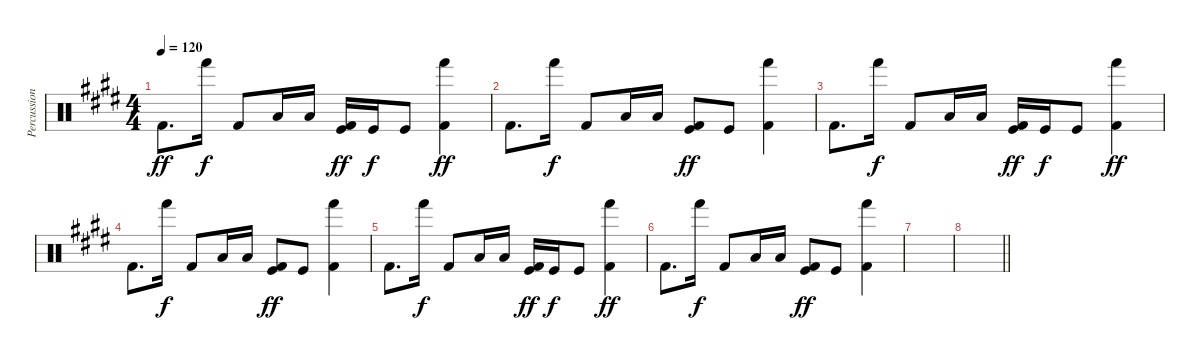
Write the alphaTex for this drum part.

\track ("Percussion" "Percussion") {instrument percussion}
\staff {score}
\articulation defaults
\ts (4 4)
\tempo 120
\clef neutral
\ks e "Kick (hit) 2".8{d dy ff} "Hand (hit)".16{dy f} "Kick (hit) 2".8 "Low Floor Tom (hit)".16 "Low Floor Tom (hit)".16
("Kick (hit)" "Kick (hit) 2").16{dy ff} "Kick (hit)".16{dy f} "Kick (hit)".8 ("Hand (hit)" "Kick (hit) 2").4{dy ff} |
"Kick (hit) 2".8{d} "Hand (hit)".16{dy f} "Kick (hit) 2".8 "Low Floor Tom (hit)".16 "Low Floor Tom (hit)".16 ("Kick (hit)" "Kick (hit) 2").8{dy ff} "Kick (hit)".8 ("Hand (hit)" "Kick (hit) 2").4 |
"Kick (hit) 2".8{d} "Hand (hit)".16{dy f} "Kick (hit) 2".8 "Low Floor Tom (hit)".16 "Low Floor Tom (hit)".16 ("Kick (hit)" "Kick (hit) 2").16{dy ff} "Kick (hit)".16{dy f} "Kick (hit)".8 ("Hand (hit)" "Kick (hit) 2").4{dy ff} |
"Kick (hit) 2".8{d} "Hand (hit)".16{dy f} "Kick (hit) 2".8 "Low Floor Tom (hit)".16 "Low Floor Tom (hit)".16 ("Kick (hit)" "Kick (hit) 2").8{dy ff} "Kick (hit)".8 ("Hand (hit)" "Kick (hit) 2").4 |
"Kick (hit) 2".8{d} "Hand (hit)".16{dy f} "Kick (hit) 2".8 "Low Floor Tom (hit)".16 "Low Floor Tom (hit)".16 ("Kick (hit)" "Kick (hit) 2").16{dy ff} "Kick (hit)".16{dy f} "Kick (hit)".8 ("Hand (hit)" "Kick (hit) 2").4{dy ff} |
"Kick (hit) 2".8{d} "Hand (hit)".16{dy f} "Kick (hit) 2".8 "Low Floor Tom (hit)".16 "Low Floor Tom (hit)".16 ("Kick (hit)" "Kick (hit) 2").8{dy ff} "Kick (hit)".8 ("Hand (hit)" "Kick (hit) 2").4 |
|
\barLineRight lightlight
